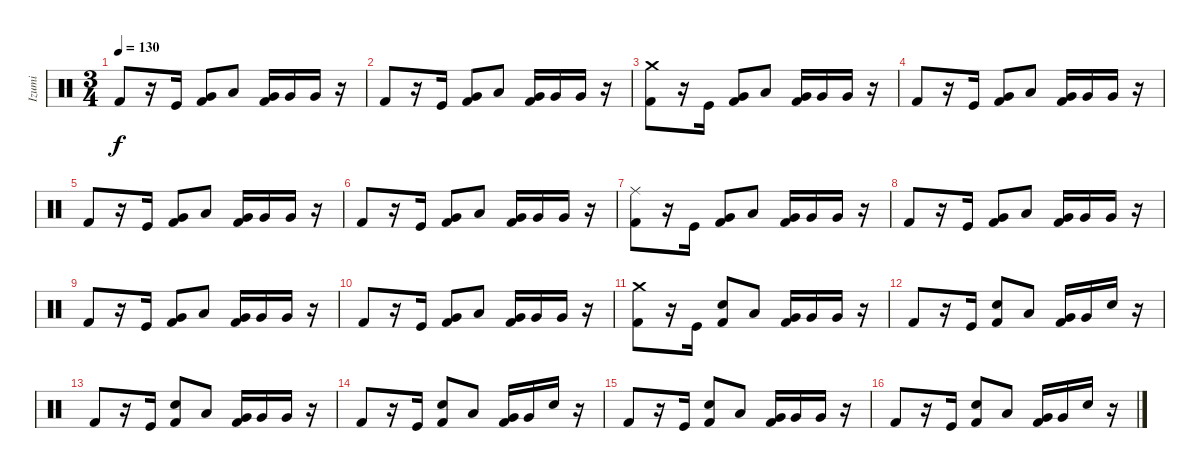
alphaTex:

\track ("Izumi" "Izumi") {instrument percussion}
\staff {score}
\articulation defaults
\ts (3 4)
\tempo 130
\clef neutral
\ks c "Kick (hit) 2".8{dy f}
r.16 "Kick (hit)".16 ("Kick (hit) 2" "Very Low Tom (hit)").8 "Low Tom (hit)".8 ("Kick (hit) 2" "Very Low Tom (hit)").16 "Very Low Tom (hit)".16 "Very Low Tom (hit)".16 r.16 |
"Kick (hit) 2".8 r.16 "Kick (hit)".16 ("Kick (hit) 2" "Very Low Tom (hit)").8 "Low Tom (hit)".8 ("Kick (hit) 2" "Very Low Tom (hit)").16 "Very Low Tom (hit)".16 "Very Low Tom (hit)".16 r.16 |
("Kick (hit) 2" "Crash medium (hit)").8 r.16 "Kick (hit)".16 ("Kick (hit) 2" "Very Low Tom (hit)").8 "Low Tom (hit)".8 ("Kick (hit) 2" "Very Low Tom (hit)").16 "Very Low Tom (hit)".16 "Very Low Tom (hit)".16 r.16 |
"Kick (hit) 2".8 r.16 "Kick (hit)".16 ("Kick (hit) 2" "Very Low Tom (hit)").8 "Low Tom (hit)".8 ("Kick (hit) 2" "Very Low Tom (hit)").16 "Very Low Tom (hit)".16 "Very Low Tom (hit)".16 r.16 |
"Kick (hit) 2".8 r.16 "Kick (hit)".16 ("Kick (hit) 2" "Very Low Tom (hit)").8 "Low Tom (hit)".8 ("Kick (hit) 2" "Very Low Tom (hit)").16 "Very Low Tom (hit)".16 "Very Low Tom (hit)".16 r.16 |
"Kick (hit) 2".8 r.16 "Kick (hit)".16 ("Kick (hit) 2" "Very Low Tom (hit)").8 "Low Tom (hit)".8 ("Kick (hit) 2" "Very Low Tom (hit)").16 "Very Low Tom (hit)".16 "Very Low Tom (hit)".16 r.16 |
("Kick (hit) 2" "Ride (middle)").8 r.16 "Kick (hit)".16 ("Kick (hit) 2" "Very Low Tom (hit)").8 "Low Tom (hit)".8 ("Kick (hit) 2" "Very Low Tom (hit)").16 "Very Low Tom (hit)".16 "Very Low Tom (hit)".16 r.16 |
"Kick (hit) 2".8 r.16 "Kick (hit)".16 ("Kick (hit) 2" "Very Low Tom (hit)").8 "Low Tom (hit)".8 ("Kick (hit) 2" "Very Low Tom (hit)").16 "Very Low Tom (hit)".16 "Very Low Tom (hit)".16 r.16 |
"Kick (hit) 2".8 r.16 "Kick (hit)".16 ("Kick (hit) 2" "Very Low Tom (hit)").8 "Low Tom (hit)".8 ("Kick (hit) 2" "Very Low Tom (hit)").16 "Very Low Tom (hit)".16 "Very Low Tom (hit)".16 r.16 |
"Kick (hit) 2".8 r.16 "Kick (hit)".16 ("Kick (hit) 2" "Very Low Tom (hit)").8 "Low Tom (hit)".8 ("Kick (hit) 2" "Very Low Tom (hit)").16 "Very Low Tom (hit)".16 "Very Low Tom (hit)".16 r.16 |
("Kick (hit) 2" "Crash medium (hit)").8 r.16 "Kick (hit)".16 ("Kick (hit) 2" "Snare (hit) 2").8 "Low Tom (hit)".8 ("Kick (hit) 2" "Very Low Tom (hit)").16 "Very Low Tom (hit)".16 "Very Low Tom (hit)".16 r.16 |
"Kick (hit) 2".8 r.16 "Kick (hit)".16 ("Kick (hit) 2" "Snare (hit) 2").8 "Low Tom (hit)".8 ("Kick (hit) 2" "Very Low Tom (hit)").16 "Very Low Tom (hit)".16 "Snare (hit) 2".16 r.16 |
"Kick (hit) 2".8 r.16 "Kick (hit)".16 ("Kick (hit) 2" "Snare (hit) 2").8 "Low Tom (hit)".8 ("Kick (hit) 2" "Very Low Tom (hit)").16 "Very Low Tom (hit)".16 "Very Low Tom (hit)".16 r.16 |
"Kick (hit) 2".8 r.16 "Kick (hit)".16 ("Kick (hit) 2" "Snare (hit) 2").8 "Low Tom (hit)".8 ("Kick (hit) 2" "Very Low Tom (hit)").16 "Very Low Tom (hit)".16 "Snare (hit) 2".16 r.16 |
"Kick (hit) 2".8 r.16 "Kick (hit)".16 ("Kick (hit) 2" "Snare (hit) 2").8 "Low Tom (hit)".8 ("Kick (hit) 2" "Very Low Tom (hit)").16 "Very Low Tom (hit)".16 "Very Low Tom (hit)".16 r.16 |
"Kick (hit) 2".8 r.16 "Kick (hit)".16 ("Kick (hit) 2" "Snare (hit) 2").8 "Low Tom (hit)".8 ("Kick (hit) 2" "Very Low Tom (hit)").16 "Very Low Tom (hit)".16 "Snare (hit) 2".16 r.16
